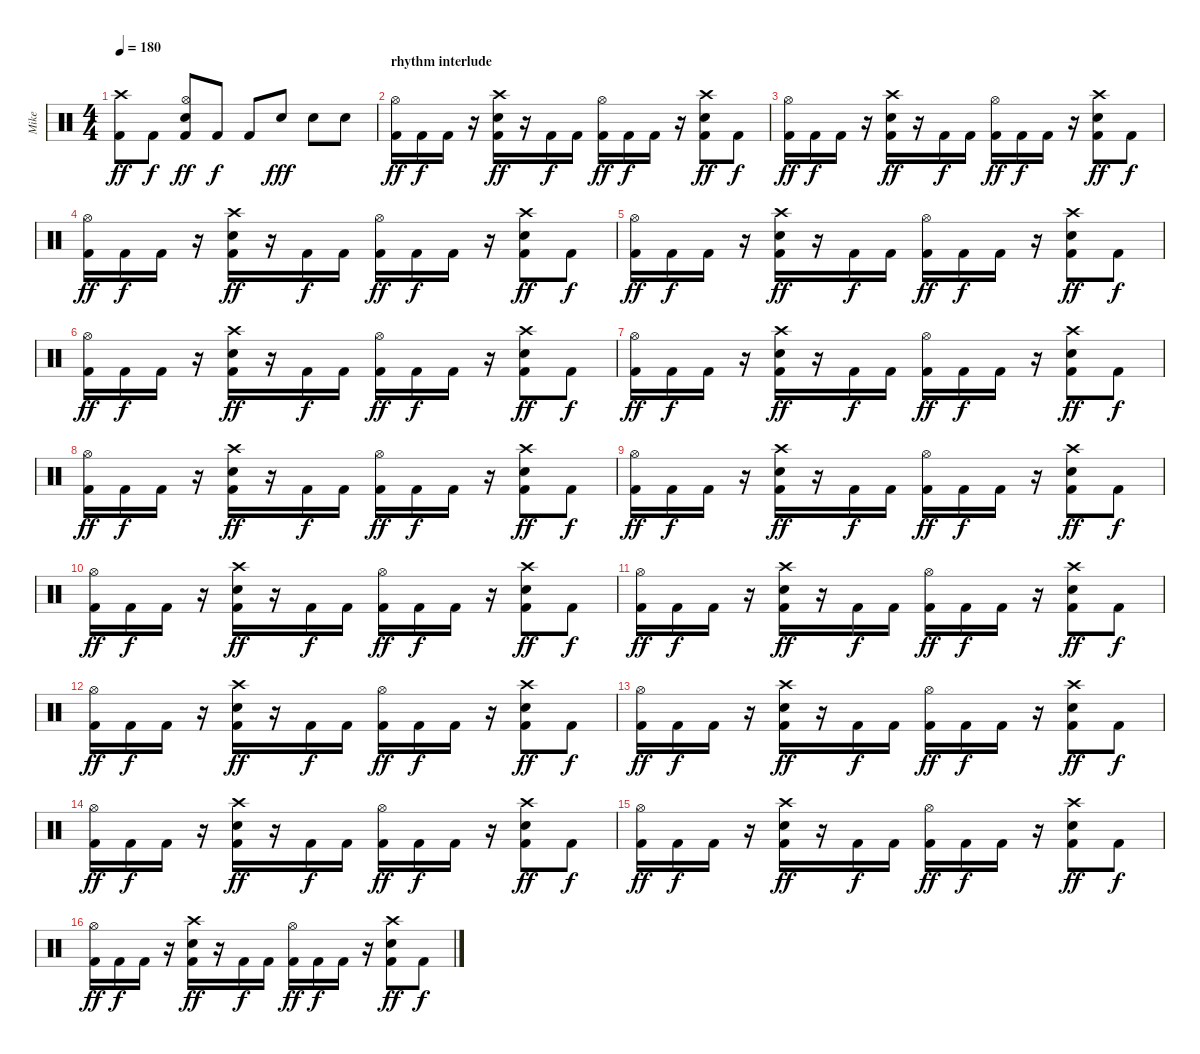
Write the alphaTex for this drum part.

\track ("Mike" "Mike") {instrument percussion}
\staff {score}
\articulation defaults
\ts (4 4)
\tempo 180
\clef neutral
\ks c
("Crash high (hit)" "Kick (hit) 2").8{dy ff} "Kick (hit) 2".8{dy f} ("Hi-Hat (open)" "Snare (hit) 2" "Kick (hit) 2").8{dy ff} "Kick (hit) 2".8{dy f} "Kick (hit) 2".8 "Snare (hit) 2".8{dy fff} "Snare (hit) 2".8 "Snare (hit) 2".8 |
\section ("" "rhythm interlude")
("Hi-Hat (open)" "Kick (hit) 2").16{dy ff} "Kick (hit) 2".16{dy f} "Kick (hit) 2".16 r.16 ("Crash high (hit)" "Snare (hit) 2" "Kick (hit) 2").16{dy ff} r.16 "Kick (hit) 2".16{dy f} "Kick (hit) 2".16 ("Hi-Hat (open)" "Kick (hit) 2").16{dy ff} "Kick (hit) 2".16{dy f} "Kick (hit) 2".16 r.16 ("Crash high (hit)" "Snare (hit) 2" "Kick (hit) 2").8{dy ff} "Kick (hit) 2".8{dy f} |
("Hi-Hat (open)" "Kick (hit) 2").16{dy ff} "Kick (hit) 2".16{dy f} "Kick (hit) 2".16 r.16 ("Crash high (hit)" "Snare (hit) 2" "Kick (hit) 2").16{dy ff} r.16 "Kick (hit) 2".16{dy f} "Kick (hit) 2".16 ("Hi-Hat (open)" "Kick (hit) 2").16{dy ff} "Kick (hit) 2".16{dy f} "Kick (hit) 2".16 r.16 ("Crash high (hit)" "Snare (hit) 2" "Kick (hit) 2").8{dy ff} "Kick (hit) 2".8{dy f} |
("Hi-Hat (open)" "Kick (hit) 2").16{dy ff} "Kick (hit) 2".16{dy f} "Kick (hit) 2".16 r.16 ("Crash high (hit)" "Snare (hit) 2" "Kick (hit) 2").16{dy ff} r.16 "Kick (hit) 2".16{dy f} "Kick (hit) 2".16 ("Hi-Hat (open)" "Kick (hit) 2").16{dy ff} "Kick (hit) 2".16{dy f} "Kick (hit) 2".16 r.16 ("Crash high (hit)" "Snare (hit) 2" "Kick (hit) 2").8{dy ff} "Kick (hit) 2".8{dy f} |
("Hi-Hat (open)" "Kick (hit) 2").16{dy ff} "Kick (hit) 2".16{dy f} "Kick (hit) 2".16 r.16 ("Crash high (hit)" "Snare (hit) 2" "Kick (hit) 2").16{dy ff} r.16 "Kick (hit) 2".16{dy f} "Kick (hit) 2".16 ("Hi-Hat (open)" "Kick (hit) 2").16{dy ff} "Kick (hit) 2".16{dy f} "Kick (hit) 2".16 r.16 ("Crash high (hit)" "Snare (hit) 2" "Kick (hit) 2").8{dy ff} "Kick (hit) 2".8{dy f} |
("Hi-Hat (open)" "Kick (hit) 2").16{dy ff} "Kick (hit) 2".16{dy f} "Kick (hit) 2".16 r.16 ("Crash high (hit)" "Snare (hit) 2" "Kick (hit) 2").16{dy ff} r.16 "Kick (hit) 2".16{dy f} "Kick (hit) 2".16 ("Hi-Hat (open)" "Kick (hit) 2").16{dy ff} "Kick (hit) 2".16{dy f} "Kick (hit) 2".16 r.16 ("Crash high (hit)" "Snare (hit) 2" "Kick (hit) 2").8{dy ff} "Kick (hit) 2".8{dy f} |
("Hi-Hat (open)" "Kick (hit) 2").16{dy ff} "Kick (hit) 2".16{dy f} "Kick (hit) 2".16 r.16 ("Crash high (hit)" "Snare (hit) 2" "Kick (hit) 2").16{dy ff} r.16 "Kick (hit) 2".16{dy f} "Kick (hit) 2".16 ("Hi-Hat (open)" "Kick (hit) 2").16{dy ff} "Kick (hit) 2".16{dy f} "Kick (hit) 2".16 r.16 ("Crash high (hit)" "Snare (hit) 2" "Kick (hit) 2").8{dy ff} "Kick (hit) 2".8{dy f} |
("Hi-Hat (open)" "Kick (hit) 2").16{dy ff} "Kick (hit) 2".16{dy f} "Kick (hit) 2".16 r.16 ("Crash high (hit)" "Snare (hit) 2" "Kick (hit) 2").16{dy ff} r.16 "Kick (hit) 2".16{dy f} "Kick (hit) 2".16 ("Hi-Hat (open)" "Kick (hit) 2").16{dy ff} "Kick (hit) 2".16{dy f} "Kick (hit) 2".16 r.16 ("Crash high (hit)" "Snare (hit) 2" "Kick (hit) 2").8{dy ff} "Kick (hit) 2".8{dy f} |
("Hi-Hat (open)" "Kick (hit) 2").16{dy ff} "Kick (hit) 2".16{dy f} "Kick (hit) 2".16 r.16 ("Crash high (hit)" "Snare (hit) 2" "Kick (hit) 2").16{dy ff} r.16 "Kick (hit) 2".16{dy f} "Kick (hit) 2".16 ("Hi-Hat (open)" "Kick (hit) 2").16{dy ff} "Kick (hit) 2".16{dy f} "Kick (hit) 2".16 r.16 ("Crash high (hit)" "Snare (hit) 2" "Kick (hit) 2").8{dy ff} "Kick (hit) 2".8{dy f} |
("Hi-Hat (open)" "Kick (hit) 2").16{dy ff} "Kick (hit) 2".16{dy f} "Kick (hit) 2".16 r.16 ("Crash high (hit)" "Snare (hit) 2" "Kick (hit) 2").16{dy ff} r.16 "Kick (hit) 2".16{dy f} "Kick (hit) 2".16 ("Hi-Hat (open)" "Kick (hit) 2").16{dy ff} "Kick (hit) 2".16{dy f} "Kick (hit) 2".16 r.16 ("Crash high (hit)" "Snare (hit) 2" "Kick (hit) 2").8{dy ff} "Kick (hit) 2".8{dy f} |
("Hi-Hat (open)" "Kick (hit) 2").16{dy ff} "Kick (hit) 2".16{dy f} "Kick (hit) 2".16 r.16 ("Crash high (hit)" "Snare (hit) 2" "Kick (hit) 2").16{dy ff} r.16 "Kick (hit) 2".16{dy f} "Kick (hit) 2".16 ("Hi-Hat (open)" "Kick (hit) 2").16{dy ff} "Kick (hit) 2".16{dy f} "Kick (hit) 2".16 r.16 ("Crash high (hit)" "Snare (hit) 2" "Kick (hit) 2").8{dy ff} "Kick (hit) 2".8{dy f} |
("Hi-Hat (open)" "Kick (hit) 2").16{dy ff} "Kick (hit) 2".16{dy f} "Kick (hit) 2".16 r.16 ("Crash high (hit)" "Snare (hit) 2" "Kick (hit) 2").16{dy ff} r.16 "Kick (hit) 2".16{dy f} "Kick (hit) 2".16 ("Hi-Hat (open)" "Kick (hit) 2").16{dy ff} "Kick (hit) 2".16{dy f} "Kick (hit) 2".16 r.16 ("Crash high (hit)" "Snare (hit) 2" "Kick (hit) 2").8{dy ff} "Kick (hit) 2".8{dy f} |
("Hi-Hat (open)" "Kick (hit) 2").16{dy ff} "Kick (hit) 2".16{dy f} "Kick (hit) 2".16 r.16 ("Crash high (hit)" "Snare (hit) 2" "Kick (hit) 2").16{dy ff} r.16 "Kick (hit) 2".16{dy f} "Kick (hit) 2".16 ("Hi-Hat (open)" "Kick (hit) 2").16{dy ff} "Kick (hit) 2".16{dy f} "Kick (hit) 2".16 r.16 ("Crash high (hit)" "Snare (hit) 2" "Kick (hit) 2").8{dy ff} "Kick (hit) 2".8{dy f} |
("Hi-Hat (open)" "Kick (hit) 2").16{dy ff} "Kick (hit) 2".16{dy f} "Kick (hit) 2".16 r.16 ("Crash high (hit)" "Snare (hit) 2" "Kick (hit) 2").16{dy ff} r.16 "Kick (hit) 2".16{dy f} "Kick (hit) 2".16 ("Hi-Hat (open)" "Kick (hit) 2").16{dy ff} "Kick (hit) 2".16{dy f} "Kick (hit) 2".16 r.16 ("Crash high (hit)" "Snare (hit) 2" "Kick (hit) 2").8{dy ff} "Kick (hit) 2".8{dy f} |
("Hi-Hat (open)" "Kick (hit) 2").16{dy ff} "Kick (hit) 2".16{dy f} "Kick (hit) 2".16 r.16 ("Crash high (hit)" "Snare (hit) 2" "Kick (hit) 2").16{dy ff} r.16 "Kick (hit) 2".16{dy f} "Kick (hit) 2".16 ("Hi-Hat (open)" "Kick (hit) 2").16{dy ff} "Kick (hit) 2".16{dy f} "Kick (hit) 2".16 r.16 ("Crash high (hit)" "Snare (hit) 2" "Kick (hit) 2").8{dy ff} "Kick (hit) 2".8{dy f} |
("Hi-Hat (open)" "Kick (hit) 2").16{dy ff} "Kick (hit) 2".16{dy f} "Kick (hit) 2".16 r.16 ("Crash high (hit)" "Snare (hit) 2" "Kick (hit) 2").16{dy ff} r.16 "Kick (hit) 2".16{dy f} "Kick (hit) 2".16 ("Hi-Hat (open)" "Kick (hit) 2").16{dy ff} "Kick (hit) 2".16{dy f} "Kick (hit) 2".16 r.16 ("Crash high (hit)" "Snare (hit) 2" "Kick (hit) 2").8{dy ff} "Kick (hit) 2".8{dy f}
